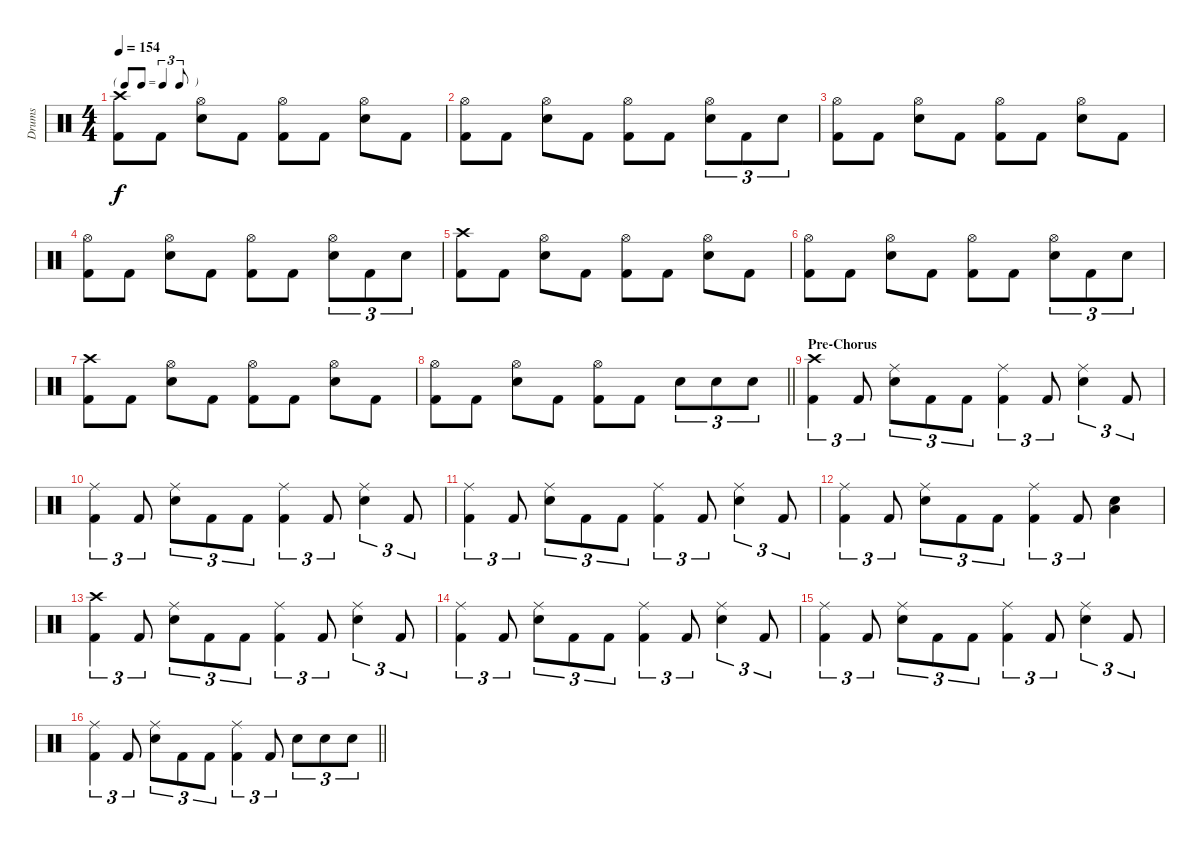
\track ("Drums" "Drums") {instrument percussion}
\staff {score}
\articulation defaults
\ts (4 4)
\tf triplet8th
\tempo 154
\clef neutral
\ks c
("Crash high (hit)" "Kick (hit) 2").8{dy f} "Kick (hit) 2".8 ("Hi-Hat (open)" "Snare (hit) 2").8 "Kick (hit) 2".8 ("Hi-Hat (open)" "Kick (hit) 2").8 "Kick (hit) 2".8 ("Hi-Hat (open)" "Snare (hit) 2").8 "Kick (hit) 2".8 |
("Hi-Hat (open)" "Kick (hit) 2").8 "Kick (hit) 2".8 ("Hi-Hat (open)" "Snare (hit) 2").8 "Kick (hit) 2".8 ("Hi-Hat (open)" "Kick (hit) 2").8 "Kick (hit) 2".8 ("Hi-Hat (open)" "Snare (hit) 2").8{tu (3 2)} "Kick (hit) 2".8{tu (3 2)} "Snare (hit) 2".8{tu (3 2)} |
("Hi-Hat (open)" "Kick (hit) 2").8 "Kick (hit) 2".8 ("Hi-Hat (open)" "Snare (hit) 2").8 "Kick (hit) 2".8 ("Hi-Hat (open)" "Kick (hit) 2").8 "Kick (hit) 2".8 ("Hi-Hat (open)" "Snare (hit) 2").8 "Kick (hit) 2".8 |
("Hi-Hat (open)" "Kick (hit) 2").8 "Kick (hit) 2".8 ("Hi-Hat (open)" "Snare (hit) 2").8 "Kick (hit) 2".8 ("Hi-Hat (open)" "Kick (hit) 2").8 "Kick (hit) 2".8 ("Hi-Hat (open)" "Snare (hit) 2").8{tu (3 2)} "Kick (hit) 2".8{tu (3 2)} "Snare (hit) 2".8{tu (3 2)} |
("Crash high (hit)" "Kick (hit) 2").8 "Kick (hit) 2".8 ("Hi-Hat (open)" "Snare (hit) 2").8 "Kick (hit) 2".8 ("Hi-Hat (open)" "Kick (hit) 2").8 "Kick (hit) 2".8 ("Hi-Hat (open)" "Snare (hit) 2").8 "Kick (hit) 2".8 |
("Hi-Hat (open)" "Kick (hit) 2").8 "Kick (hit) 2".8 ("Hi-Hat (open)" "Snare (hit) 2").8 "Kick (hit) 2".8 ("Hi-Hat (open)" "Kick (hit) 2").8 "Kick (hit) 2".8 ("Hi-Hat (open)" "Snare (hit) 2").8{tu (3 2)} "Kick (hit) 2".8{tu (3 2)} "Snare (hit) 2".8{tu (3 2)} |
("Crash high (hit)" "Kick (hit) 2").8 "Kick (hit) 2".8 ("Hi-Hat (open)" "Snare (hit) 2").8 "Kick (hit) 2".8 ("Hi-Hat (open)" "Kick (hit) 2").8 "Kick (hit) 2".8 ("Hi-Hat (open)" "Snare (hit) 2").8 "Kick (hit) 2".8 |
\barLineRight lightlight
("Hi-Hat (open)" "Kick (hit) 2").8 "Kick (hit) 2".8 ("Hi-Hat (open)" "Snare (hit) 2").8 "Kick (hit) 2".8 ("Hi-Hat (open)" "Kick (hit) 2").8 "Kick (hit) 2".8 "Snare (hit) 2".8{tu (3 2)} "Snare (hit) 2".8{tu (3 2)} "Snare (hit) 2".8{tu (3 2)} |
\section ("" "Pre-Chorus")
("Crash high (hit)" "Kick (hit) 2").4{tu (3 2)} "Kick (hit) 2".8{tu (3 2)} ("Ride (middle)" "Snare (hit) 2").8{tu (3 2)} "Kick (hit) 2".8{tu (3 2)} "Kick (hit) 2".8{tu (3 2)} ("Ride (middle)" "Kick (hit) 2").4{tu (3 2)} "Kick (hit) 2".8{tu (3 2)} ("Ride (middle)" "Snare (hit) 2").4{tu (3 2)} "Kick (hit) 2".8{tu (3 2)} |
("Ride (middle)" "Kick (hit) 2").4{tu (3 2)} "Kick (hit) 2".8{tu (3 2)} ("Ride (middle)" "Snare (hit) 2").8{tu (3 2)} "Kick (hit) 2".8{tu (3 2)} "Kick (hit) 2".8{tu (3 2)} ("Ride (middle)" "Kick (hit) 2").4{tu (3 2)} "Kick (hit) 2".8{tu (3 2)} ("Ride (middle)" "Snare (hit) 2").4{tu (3 2)} "Kick (hit) 2".8{tu (3 2)} |
("Ride (middle)" "Kick (hit) 2").4{tu (3 2)} "Kick (hit) 2".8{tu (3 2)} ("Ride (middle)" "Snare (hit) 2").8{tu (3 2)} "Kick (hit) 2".8{tu (3 2)} "Kick (hit) 2".8{tu (3 2)} ("Ride (middle)" "Kick (hit) 2").4{tu (3 2)} "Kick (hit) 2".8{tu (3 2)} ("Ride (middle)" "Snare (hit) 2").4{tu (3 2)} "Kick (hit) 2".8{tu (3 2)} |
("Ride (middle)" "Kick (hit) 2").4{tu (3 2)} "Kick (hit) 2".8{tu (3 2)} ("Ride (middle)" "Snare (hit) 2").8{tu (3 2)} "Kick (hit) 2".8{tu (3 2)} "Kick (hit) 2".8{tu (3 2)} ("Ride (middle)" "Kick (hit) 2").4{tu (3 2)} "Kick (hit) 2".8{tu (3 2)} ("Snare (hit) 2" "Low Floor Tom (hit)").4 |
("Crash high (hit)" "Kick (hit) 2").4{tu (3 2)} "Kick (hit) 2".8{tu (3 2)} ("Ride (middle)" "Snare (hit) 2").8{tu (3 2)} "Kick (hit) 2".8{tu (3 2)} "Kick (hit) 2".8{tu (3 2)} ("Ride (middle)" "Kick (hit) 2").4{tu (3 2)} "Kick (hit) 2".8{tu (3 2)} ("Ride (middle)" "Snare (hit) 2").4{tu (3 2)} "Kick (hit) 2".8{tu (3 2)} |
("Ride (middle)" "Kick (hit) 2").4{tu (3 2)} "Kick (hit) 2".8{tu (3 2)} ("Ride (middle)" "Snare (hit) 2").8{tu (3 2)} "Kick (hit) 2".8{tu (3 2)} "Kick (hit) 2".8{tu (3 2)} ("Ride (middle)" "Kick (hit) 2").4{tu (3 2)} "Kick (hit) 2".8{tu (3 2)} ("Ride (middle)" "Snare (hit) 2").4{tu (3 2)} "Kick (hit) 2".8{tu (3 2)} |
("Ride (middle)" "Kick (hit) 2").4{tu (3 2)} "Kick (hit) 2".8{tu (3 2)} ("Ride (middle)" "Snare (hit) 2").8{tu (3 2)} "Kick (hit) 2".8{tu (3 2)} "Kick (hit) 2".8{tu (3 2)} ("Ride (middle)" "Kick (hit) 2").4{tu (3 2)} "Kick (hit) 2".8{tu (3 2)} ("Ride (middle)" "Snare (hit) 2").4{tu (3 2)} "Kick (hit) 2".8{tu (3 2)} |
\barLineRight lightlight
("Ride (middle)" "Kick (hit) 2").4{tu (3 2)} "Kick (hit) 2".8{tu (3 2)} ("Ride (middle)" "Snare (hit) 2").8{tu (3 2)} "Kick (hit) 2".8{tu (3 2)} "Kick (hit) 2".8{tu (3 2)} ("Ride (middle)" "Kick (hit) 2").4{tu (3 2)} "Kick (hit) 2".8{tu (3 2)} "Snare (hit) 2".8{tu (3 2)} "Snare (hit) 2".8{tu (3 2)} "Snare (hit) 2".8{tu (3 2)}
